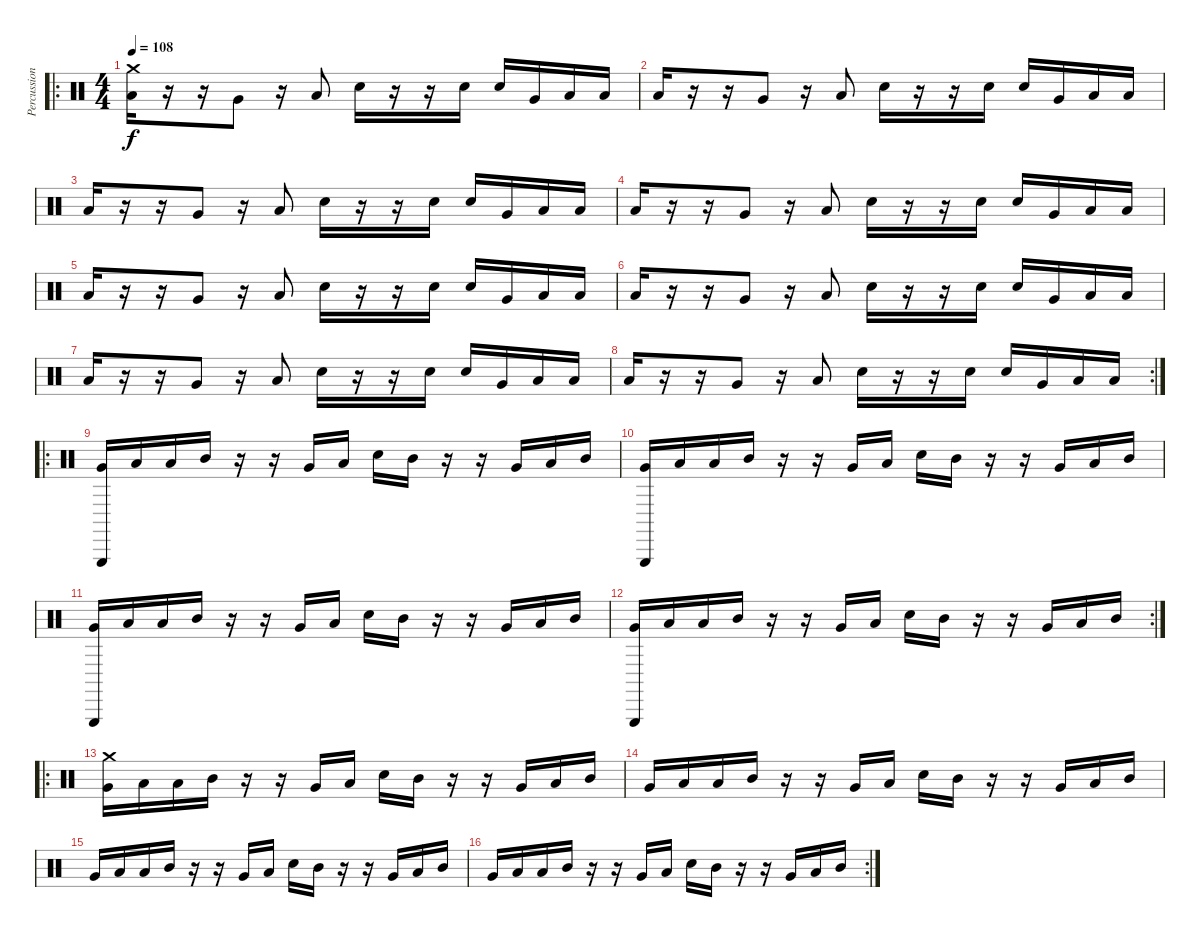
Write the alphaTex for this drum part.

\track ("Percussions" "Percussion") {instrument percussion}
\staff {score}
\articulation defaults
\ro
\ts (4 4)
\tempo 108
\clef neutral
\ks c
("Crash medium (hit)" "Low Tom (hit)").16{dy f} r.16 r.16 "Very Low Tom (hit)".8 r.16 "Low Floor Tom (hit)".8 "Electric Snare (hit)".16 r.16 r.16 "Electric Snare (hit)".16 "Electric Snare (hit)".16 "Very Low Tom (hit)".16 "Low Tom (hit)".16 "Low Floor Tom (hit)".16 |
"Low Tom (hit)".16 r.16 r.16 "Very Low Tom (hit)".8 r.16 "Low Floor Tom (hit)".8 "Electric Snare (hit)".16 r.16 r.16 "Electric Snare (hit)".16 "Electric Snare (hit)".16 "Very Low Tom (hit)".16 "Low Tom (hit)".16 "Low Floor Tom (hit)".16 |
"Low Tom (hit)".16 r.16 r.16 "Very Low Tom (hit)".8 r.16 "Low Floor Tom (hit)".8 "Electric Snare (hit)".16 r.16 r.16 "Electric Snare (hit)".16 "Electric Snare (hit)".16 "Very Low Tom (hit)".16 "Low Tom (hit)".16 "Low Floor Tom (hit)".16 |
"Low Tom (hit)".16 r.16 r.16 "Very Low Tom (hit)".8 r.16 "Low Floor Tom (hit)".8 "Electric Snare (hit)".16 r.16 r.16 "Electric Snare (hit)".16 "Electric Snare (hit)".16 "Very Low Tom (hit)".16 "Low Tom (hit)".16 "Low Floor Tom (hit)".16 |
"Low Tom (hit)".16 r.16 r.16 "Very Low Tom (hit)".8 r.16 "Low Floor Tom (hit)".8 "Electric Snare (hit)".16 r.16 r.16 "Electric Snare (hit)".16 "Electric Snare (hit)".16 "Very Low Tom (hit)".16 "Low Tom (hit)".16 "Low Floor Tom (hit)".16 |
"Low Tom (hit)".16 r.16 r.16 "Very Low Tom (hit)".8 r.16 "Low Floor Tom (hit)".8 "Electric Snare (hit)".16 r.16 r.16 "Electric Snare (hit)".16 "Electric Snare (hit)".16 "Very Low Tom (hit)".16 "Low Tom (hit)".16 "Low Floor Tom (hit)".16 |
"Low Tom (hit)".16 r.16 r.16 "Very Low Tom (hit)".8 r.16 "Low Floor Tom (hit)".8 "Electric Snare (hit)".16 r.16 r.16 "Electric Snare (hit)".16 "Electric Snare (hit)".16 "Very Low Tom (hit)".16 "Low Tom (hit)".16 "Low Floor Tom (hit)".16 |
\rc 2 "Low Tom (hit)".16
r.16 r.16 "Very Low Tom (hit)".8 r.16 "Low Floor Tom (hit)".8 "Electric Snare (hit)".16 r.16 r.16 "Electric Snare (hit)".16 "Electric Snare (hit)".16 "Very Low Tom (hit)".16 "Low Tom (hit)".16 "Low Floor Tom (hit)".16 |
\ro
("Triangle (hit)" "Very Low Tom (hit)").16 "Low Tom (hit)".16 "Low Floor Tom (hit)".16 "Mid Tom (hit)".16 r.16 r.16 "Very Low Tom (hit)".16 "Low Tom (hit)".16 "Snare (hit)".16 "Mid Tom (hit)".16 r.16 r.16 "Very Low Tom (hit)".16 "Low Tom (hit)".16 "Mid Tom (hit)".16 |
("Triangle (hit)" "Very Low Tom (hit)").16 "Low Tom (hit)".16 "Low Floor Tom (hit)".16 "Mid Tom (hit)".16 r.16 r.16 "Very Low Tom (hit)".16 "Low Tom (hit)".16 "Snare (hit)".16 "Mid Tom (hit)".16 r.16 r.16 "Very Low Tom (hit)".16 "Low Tom (hit)".16 "Mid Tom (hit)".16 |
("Triangle (hit)" "Very Low Tom (hit)").16 "Low Tom (hit)".16 "Low Floor Tom (hit)".16 "Mid Tom (hit)".16 r.16 r.16 "Very Low Tom (hit)".16 "Low Tom (hit)".16 "Snare (hit)".16 "Mid Tom (hit)".16 r.16 r.16 "Very Low Tom (hit)".16 "Low Tom (hit)".16 "Mid Tom (hit)".16 |
\rc 2
("Triangle (hit)" "Very Low Tom (hit)").16 "Low Tom (hit)".16 "Low Floor Tom (hit)".16 "Mid Tom (hit)".16 r.16 r.16 "Very Low Tom (hit)".16 "Low Tom (hit)".16 "Snare (hit)".16 "Mid Tom (hit)".16 r.16 r.16 "Very Low Tom (hit)".16 "Low Tom (hit)".16 "Mid Tom (hit)".16 |
\ro
("Crash medium (hit)" "Very Low Tom (hit)").16 "Low Tom (hit)".16 "Low Floor Tom (hit)".16 "Mid Tom (hit)".16 r.16 r.16 "Very Low Tom (hit)".16 "Low Tom (hit)".16 "Snare (hit)".16 "Mid Tom (hit)".16 r.16 r.16 "Very Low Tom (hit)".16 "Low Tom (hit)".16 "Mid Tom (hit)".16 |
"Very Low Tom (hit)".16 "Low Tom (hit)".16 "Low Floor Tom (hit)".16 "Mid Tom (hit)".16 r.16 r.16 "Very Low Tom (hit)".16 "Low Tom (hit)".16 "Snare (hit)".16 "Mid Tom (hit)".16 r.16 r.16 "Very Low Tom (hit)".16 "Low Tom (hit)".16 "Mid Tom (hit)".16 |
"Very Low Tom (hit)".16 "Low Tom (hit)".16 "Low Floor Tom (hit)".16 "Mid Tom (hit)".16 r.16 r.16 "Very Low Tom (hit)".16 "Low Tom (hit)".16 "Snare (hit)".16 "Mid Tom (hit)".16 r.16 r.16 "Very Low Tom (hit)".16 "Low Tom (hit)".16 "Mid Tom (hit)".16 |
\rc 2 "Very Low Tom (hit)".16 "Low Tom (hit)".16 "Low Floor Tom (hit)".16 "Mid Tom (hit)".16
r.16 r.16 "Very Low Tom (hit)".16 "Low Tom (hit)".16 "Snare (hit)".16 "Mid Tom (hit)".16 r.16 r.16 "Very Low Tom (hit)".16 "Low Tom (hit)".16 "Mid Tom (hit)".16
